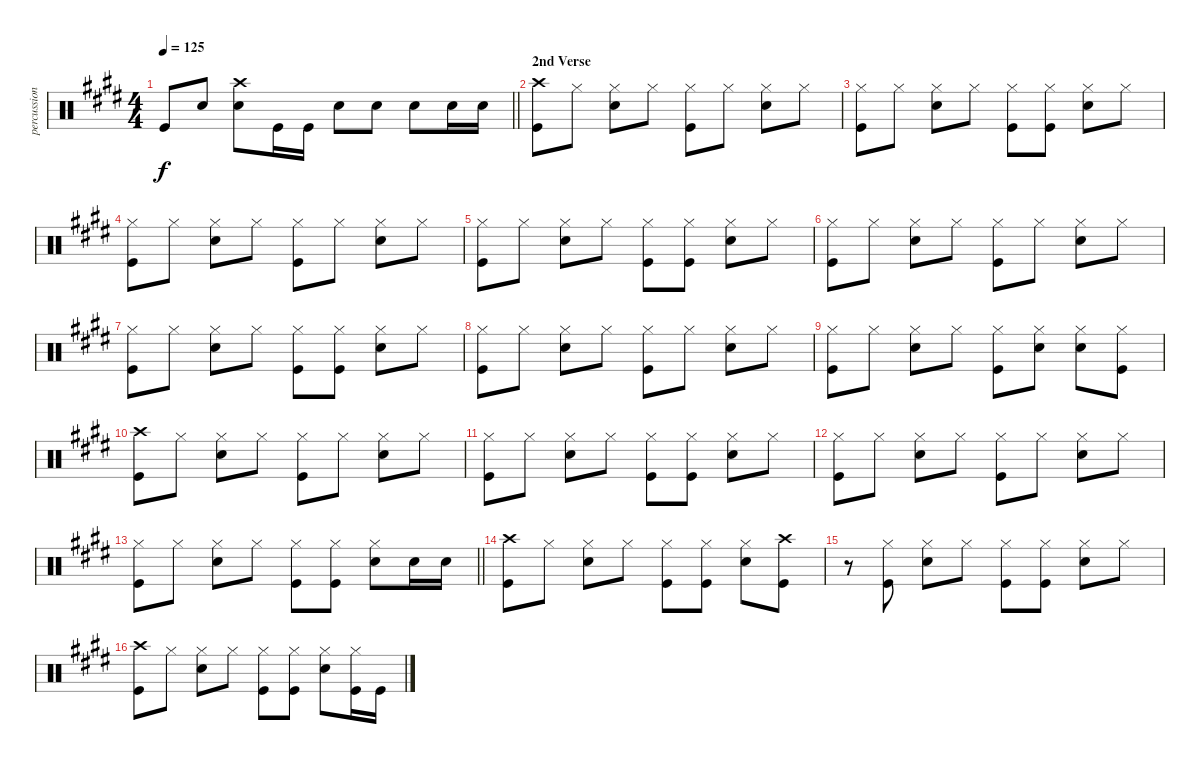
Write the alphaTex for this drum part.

\track ("percussion" "percussion") {instrument percussion}
\staff {score}
\articulation defaults
\ts (4 4)
\tempo 125
\clef neutral
\barLineRight lightlight
\ks e "Kick (hit)".8{dy f} "Electric Snare (hit)".8
("Crash high (hit)" "Electric Snare (hit)").8 "Kick (hit)".16 "Kick (hit)".16 "Electric Snare (hit)".8 "Electric Snare (hit)".8 "Electric Snare (hit)".8 "Electric Snare (hit)".16 "Electric Snare (hit)".16 |
\section ("" "2nd Verse")
("Crash high (hit)" "Kick (hit)").8 "Hi-Hat (closed)".8 ("Electric Snare (hit)" "Hi-Hat (closed)").8 "Hi-Hat (closed)".8 ("Hi-Hat (closed)" "Kick (hit)").8 "Hi-Hat (closed)".8 ("Electric Snare (hit)" "Hi-Hat (closed)").8 "Hi-Hat (closed)".8 |
("Hi-Hat (closed)" "Kick (hit)").8 "Hi-Hat (closed)".8 ("Electric Snare (hit)" "Hi-Hat (closed)").8 "Hi-Hat (closed)".8 ("Hi-Hat (closed)" "Kick (hit)").8 ("Hi-Hat (closed)" "Kick (hit)").8 ("Electric Snare (hit)" "Hi-Hat (closed)").8 "Hi-Hat (closed)".8 |
("Hi-Hat (closed)" "Kick (hit)").8 "Hi-Hat (closed)".8 ("Electric Snare (hit)" "Hi-Hat (closed)").8 "Hi-Hat (closed)".8 ("Hi-Hat (closed)" "Kick (hit)").8 "Hi-Hat (closed)".8 ("Electric Snare (hit)" "Hi-Hat (closed)").8 "Hi-Hat (closed)".8 |
("Hi-Hat (closed)" "Kick (hit)").8 "Hi-Hat (closed)".8 ("Electric Snare (hit)" "Hi-Hat (closed)").8 "Hi-Hat (closed)".8 ("Hi-Hat (closed)" "Kick (hit)").8 ("Hi-Hat (closed)" "Kick (hit)").8 ("Electric Snare (hit)" "Hi-Hat (closed)").8 "Hi-Hat (closed)".8 |
("Hi-Hat (closed)" "Kick (hit)").8 "Hi-Hat (closed)".8 ("Electric Snare (hit)" "Hi-Hat (closed)").8 "Hi-Hat (closed)".8 ("Hi-Hat (closed)" "Kick (hit)").8 "Hi-Hat (closed)".8 ("Electric Snare (hit)" "Hi-Hat (closed)").8 "Hi-Hat (closed)".8 |
("Hi-Hat (closed)" "Kick (hit)").8 "Hi-Hat (closed)".8 ("Electric Snare (hit)" "Hi-Hat (closed)").8 "Hi-Hat (closed)".8 ("Hi-Hat (closed)" "Kick (hit)").8 ("Hi-Hat (closed)" "Kick (hit)").8 ("Electric Snare (hit)" "Hi-Hat (closed)").8 "Hi-Hat (closed)".8 |
("Hi-Hat (closed)" "Kick (hit)").8 "Hi-Hat (closed)".8 ("Electric Snare (hit)" "Hi-Hat (closed)").8 "Hi-Hat (closed)".8 ("Hi-Hat (closed)" "Kick (hit)").8 "Hi-Hat (closed)".8 ("Electric Snare (hit)" "Hi-Hat (closed)").8 "Hi-Hat (closed)".8 |
("Hi-Hat (closed)" "Kick (hit)").8 "Hi-Hat (closed)".8 ("Electric Snare (hit)" "Hi-Hat (closed)").8 "Hi-Hat (closed)".8 ("Hi-Hat (closed)" "Kick (hit)").8 ("Electric Snare (hit)" "Hi-Hat (closed)").8 ("Electric Snare (hit)" "Hi-Hat (closed)").8 ("Hi-Hat (closed)" "Kick (hit)").8 |
("Crash high (hit)" "Kick (hit)").8 "Hi-Hat (closed)".8 ("Electric Snare (hit)" "Hi-Hat (closed)").8 "Hi-Hat (closed)".8 ("Hi-Hat (closed)" "Kick (hit)").8 "Hi-Hat (closed)".8 ("Electric Snare (hit)" "Hi-Hat (closed)").8 "Hi-Hat (closed)".8 |
("Hi-Hat (closed)" "Kick (hit)").8 "Hi-Hat (closed)".8 ("Electric Snare (hit)" "Hi-Hat (closed)").8 "Hi-Hat (closed)".8 ("Hi-Hat (closed)" "Kick (hit)").8 ("Hi-Hat (closed)" "Kick (hit)").8 ("Electric Snare (hit)" "Hi-Hat (closed)").8 "Hi-Hat (closed)".8 |
("Hi-Hat (closed)" "Kick (hit)").8 "Hi-Hat (closed)".8 ("Electric Snare (hit)" "Hi-Hat (closed)").8 "Hi-Hat (closed)".8 ("Hi-Hat (closed)" "Kick (hit)").8 "Hi-Hat (closed)".8 ("Electric Snare (hit)" "Hi-Hat (closed)").8 "Hi-Hat (closed)".8 |
\barLineRight lightlight
("Hi-Hat (closed)" "Kick (hit)").8 "Hi-Hat (closed)".8 ("Electric Snare (hit)" "Hi-Hat (closed)").8 "Hi-Hat (closed)".8 ("Hi-Hat (closed)" "Kick (hit)").8 ("Hi-Hat (closed)" "Kick (hit)").8 ("Electric Snare (hit)" "Hi-Hat (closed)").8 "Electric Snare (hit)".16 "Electric Snare (hit)".16 |
("Crash high (hit)" "Kick (hit)").8 "Hi-Hat (closed)".8 ("Electric Snare (hit)" "Hi-Hat (closed)").8 "Hi-Hat (closed)".8 ("Hi-Hat (closed)" "Kick (hit)").8 ("Hi-Hat (closed)" "Kick (hit)").8 ("Electric Snare (hit)" "Hi-Hat (closed)").8 ("Crash high (hit)" "Kick (hit)").8 |
r.8 ("Hi-Hat (closed)" "Kick (hit)").8 ("Electric Snare (hit)" "Hi-Hat (closed)").8 "Hi-Hat (closed)".8 ("Hi-Hat (closed)" "Kick (hit)").8 ("Hi-Hat (closed)" "Kick (hit)").8 ("Electric Snare (hit)" "Hi-Hat (closed)").8 "Hi-Hat (closed)".8 |
("Crash high (hit)" "Kick (hit)").8 "Hi-Hat (closed)".8 ("Electric Snare (hit)" "Hi-Hat (closed)").8 "Hi-Hat (closed)".8 ("Hi-Hat (closed)" "Kick (hit)").8 ("Hi-Hat (closed)" "Kick (hit)").8 ("Electric Snare (hit)" "Hi-Hat (closed)").8 ("Hi-Hat (closed)" "Kick (hit)").16 "Kick (hit)".16
